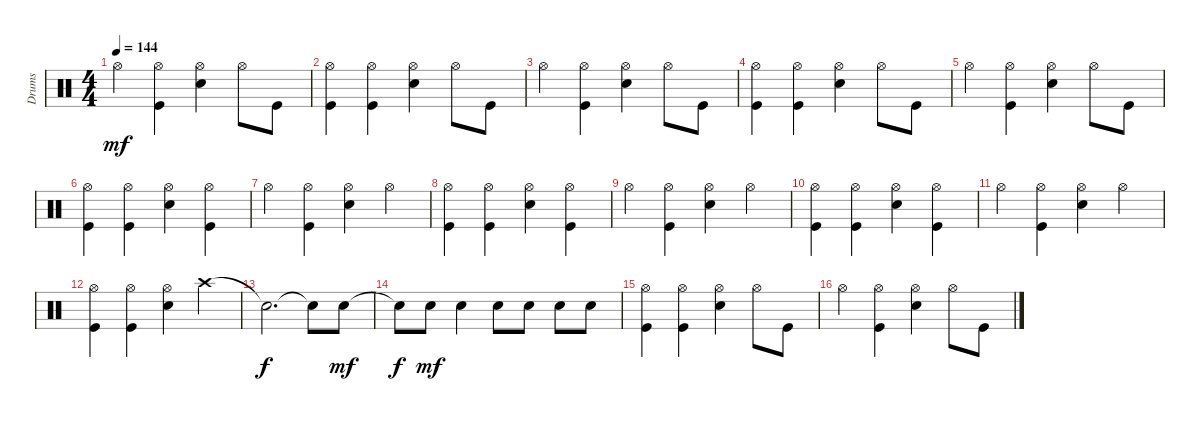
\track ("Drums               " "Drums     ") {instrument percussion}
\staff {score}
\articulation defaults
\ts (4 4)
\tempo 144
\clef neutral
\ks c "Hi-Hat (open)".4{dy mf}
("Hi-Hat (open)" "Kick (hit)").4 ("Snare (hit) 2" "Hi-Hat (open)").4 "Hi-Hat (open)".8 "Kick (hit)".8 |
("Kick (hit)" "Hi-Hat (open)").4 ("Kick (hit)" "Hi-Hat (open)").4 ("Snare (hit) 2" "Hi-Hat (open)").4 "Hi-Hat (open)".8 "Kick (hit)".8 |
"Hi-Hat (open)".4 ("Hi-Hat (open)" "Kick (hit)").4 ("Snare (hit) 2" "Hi-Hat (open)").4 "Hi-Hat (open)".8 "Kick (hit)".8 |
("Kick (hit)" "Hi-Hat (open)").4 ("Kick (hit)" "Hi-Hat (open)").4 ("Snare (hit) 2" "Hi-Hat (open)").4 "Hi-Hat (open)".8 "Kick (hit)".8 |
"Hi-Hat (open)".4 ("Hi-Hat (open)" "Kick (hit)").4 ("Snare (hit) 2" "Hi-Hat (open)").4 "Hi-Hat (open)".8 "Kick (hit)".8 |
("Kick (hit)" "Hi-Hat (open)").4 ("Kick (hit)" "Hi-Hat (open)").4 ("Snare (hit) 2" "Hi-Hat (open)").4 ("Kick (hit)" "Hi-Hat (open)").4 |
"Hi-Hat (open)".4 ("Kick (hit)" "Hi-Hat (open)").4 ("Snare (hit) 2" "Hi-Hat (open)").4 "Hi-Hat (open)".4 |
("Kick (hit)" "Hi-Hat (open)").4 ("Kick (hit)" "Hi-Hat (open)").4 ("Snare (hit) 2" "Hi-Hat (open)").4 ("Kick (hit)" "Hi-Hat (open)").4 |
"Hi-Hat (open)".4 ("Kick (hit)" "Hi-Hat (open)").4 ("Snare (hit) 2" "Hi-Hat (open)").4 "Hi-Hat (open)".4 |
("Kick (hit)" "Hi-Hat (open)").4 ("Kick (hit)" "Hi-Hat (open)").4 ("Snare (hit) 2" "Hi-Hat (open)").4 ("Kick (hit)" "Hi-Hat (open)").4 |
"Hi-Hat (open)".4 ("Kick (hit)" "Hi-Hat (open)").4 ("Snare (hit) 2" "Hi-Hat (open)").4 "Hi-Hat (open)".4 |
("Kick (hit)" "Hi-Hat (open)").4 ("Kick (hit)" "Hi-Hat (open)").4 ("Snare (hit) 2" "Hi-Hat (open)").4 "Crash high (hit)".4 |
"Snare (hit)"{t}.2{d dy f} "Snare (hit)"{t}.8 "Snare (hit) 2".8{dy mf} |
"Snare (hit)"{t}.8{dy f} "Snare (hit) 2".8{dy mf} "Snare (hit) 2".4 "Snare (hit) 2".8 "Snare (hit) 2".8 "Snare (hit) 2".8 "Snare (hit) 2".8 |
("Kick (hit)" "Hi-Hat (open)").4 ("Kick (hit)" "Hi-Hat (open)").4 ("Snare (hit) 2" "Hi-Hat (open)").4 "Hi-Hat (open)".8 "Kick (hit)".8 |
"Hi-Hat (open)".4 ("Hi-Hat (open)" "Kick (hit)").4 ("Snare (hit) 2" "Hi-Hat (open)").4 "Hi-Hat (open)".8 "Kick (hit)".8
